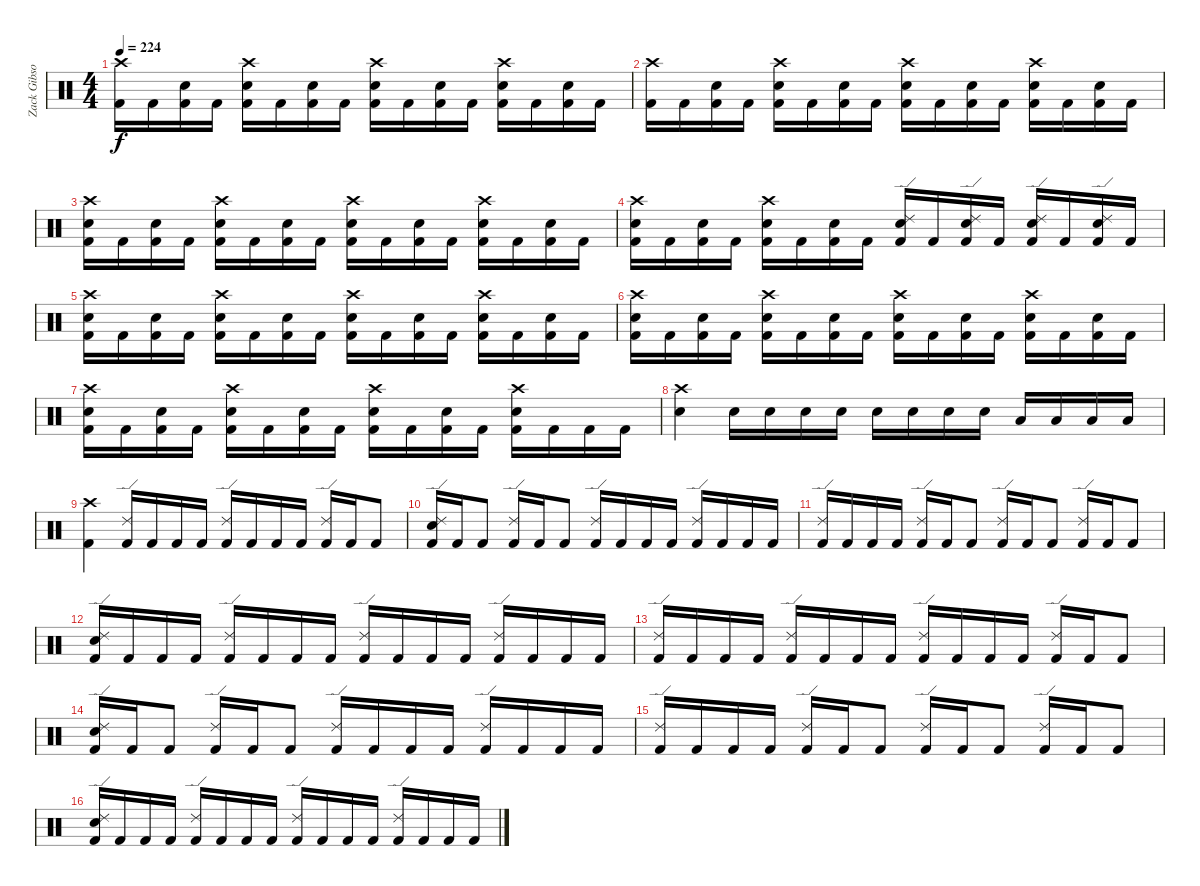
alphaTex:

\track ("Zack Gibson" "Zack Gibso") {instrument percussion}
\staff {score}
\articulation defaults
\ts (4 4)
\tempo 224
\clef neutral
\ks c
("Crash high (hit)" "Kick (hit) 2").16{dy f} "Kick (hit) 2".16 ("Snare (hit) 2" "Kick (hit) 2").16 "Kick (hit) 2".16 ("Kick (hit) 2" "Crash high (hit)" "Snare (hit) 2").16 "Kick (hit) 2".16 ("Snare (hit) 2" "Kick (hit) 2").16 "Kick (hit) 2".16 ("Kick (hit) 2" "Crash high (hit)" "Snare (hit) 2").16 "Kick (hit) 2".16 ("Snare (hit) 2" "Kick (hit) 2").16 "Kick (hit) 2".16 ("Kick (hit) 2" "Crash high (hit)" "Snare (hit) 2").16 "Kick (hit) 2".16 ("Snare (hit) 2" "Kick (hit) 2").16 "Kick (hit) 2".16 |
("Crash high (hit)" "Kick (hit) 2").16 "Kick (hit) 2".16 ("Snare (hit) 2" "Kick (hit) 2").16 "Kick (hit) 2".16 ("Kick (hit) 2" "Crash high (hit)" "Snare (hit) 2").16 "Kick (hit) 2".16 ("Snare (hit) 2" "Kick (hit) 2").16 "Kick (hit) 2".16 ("Kick (hit) 2" "Crash high (hit)" "Snare (hit) 2").16 "Kick (hit) 2".16 ("Snare (hit) 2" "Kick (hit) 2").16 "Kick (hit) 2".16 ("Kick (hit) 2" "Crash high (hit)" "Snare (hit) 2").16 "Kick (hit) 2".16 ("Snare (hit) 2" "Kick (hit) 2").16 "Kick (hit) 2".16 |
("Crash high (hit)" "Snare (hit) 2" "Kick (hit) 2").16 "Kick (hit) 2".16 ("Snare (hit) 2" "Kick (hit) 2").16 "Kick (hit) 2".16 ("Kick (hit) 2" "Crash high (hit)" "Snare (hit) 2").16 "Kick (hit) 2".16 ("Snare (hit) 2" "Kick (hit) 2").16 "Kick (hit) 2".16 ("Kick (hit) 2" "Crash high (hit)" "Snare (hit) 2").16 "Kick (hit) 2".16 ("Snare (hit) 2" "Kick (hit) 2").16 "Kick (hit) 2".16 ("Kick (hit) 2" "Crash high (hit)" "Snare (hit) 2").16 "Kick (hit) 2".16 ("Snare (hit) 2" "Kick (hit) 2").16 "Kick (hit) 2".16 |
("Crash high (hit)" "Snare (hit) 2" "Kick (hit) 2").16 "Kick (hit) 2".16 ("Snare (hit) 2" "Kick (hit) 2").16 "Kick (hit) 2".16 ("Kick (hit) 2" "Crash high (hit)" "Snare (hit) 2").16 "Kick (hit) 2".16 ("Snare (hit) 2" "Kick (hit) 2").16 "Kick (hit) 2".16 ("Kick (hit) 2" "Ride (edge) 2" "Snare (hit) 2").16 "Kick (hit) 2".16 ("Snare (hit) 2" "Ride (edge) 2" "Kick (hit) 2").16 "Kick (hit) 2".16 ("Kick (hit) 2" "Ride (edge) 2" "Snare (hit) 2").16 "Kick (hit) 2".16 ("Snare (hit) 2" "Ride (edge) 2" "Kick (hit) 2").16 "Kick (hit) 2".16 |
("Crash high (hit)" "Snare (hit) 2" "Kick (hit) 2").16 "Kick (hit) 2".16 ("Snare (hit) 2" "Kick (hit) 2").16 "Kick (hit) 2".16 ("Kick (hit) 2" "Crash high (hit)" "Snare (hit) 2").16 "Kick (hit) 2".16 ("Snare (hit) 2" "Kick (hit) 2").16 "Kick (hit) 2".16 ("Kick (hit) 2" "Crash high (hit)" "Snare (hit) 2").16 "Kick (hit) 2".16 ("Snare (hit) 2" "Kick (hit) 2").16 "Kick (hit) 2".16 ("Kick (hit) 2" "Crash high (hit)" "Snare (hit) 2").16 "Kick (hit) 2".16 ("Snare (hit) 2" "Kick (hit) 2").16 "Kick (hit) 2".16 |
("Crash high (hit)" "Snare (hit) 2" "Kick (hit) 2").16 "Kick (hit) 2".16 ("Snare (hit) 2" "Kick (hit) 2").16 "Kick (hit) 2".16 ("Kick (hit) 2" "Crash high (hit)" "Snare (hit) 2").16 "Kick (hit) 2".16 ("Snare (hit) 2" "Kick (hit) 2").16 "Kick (hit) 2".16 ("Kick (hit) 2" "Crash high (hit)" "Snare (hit) 2").16 "Kick (hit) 2".16 ("Snare (hit) 2" "Kick (hit) 2").16 "Kick (hit) 2".16 ("Kick (hit) 2" "Crash high (hit)" "Snare (hit) 2").16 "Kick (hit) 2".16 ("Snare (hit) 2" "Kick (hit) 2").16 "Kick (hit) 2".16 |
("Crash high (hit)" "Snare (hit) 2" "Kick (hit) 2").16 "Kick (hit) 2".16 ("Snare (hit) 2" "Kick (hit) 2").16 "Kick (hit) 2".16 ("Kick (hit) 2" "Crash high (hit)" "Snare (hit) 2").16 "Kick (hit) 2".16 ("Snare (hit) 2" "Kick (hit) 2").16 "Kick (hit) 2".16 ("Kick (hit) 2" "Crash high (hit)" "Snare (hit) 2").16 "Kick (hit) 2".16 ("Snare (hit) 2" "Kick (hit) 2").16 "Kick (hit) 2".16 ("Kick (hit) 2" "Crash high (hit)" "Snare (hit) 2").16 "Kick (hit) 2".16 "Kick (hit) 2".16 "Kick (hit) 2".16 |
("Crash high (hit)" "Snare (hit) 2").4 "Snare (hit) 2".16 "Snare (hit) 2".16 "Snare (hit) 2".16 "Snare (hit) 2".16 "Snare (hit) 2".16 "Snare (hit) 2".16 "Snare (hit) 2".16 "Snare (hit) 2".16 "Low Tom (hit)".16 "Low Tom (hit)".16 "Low Tom (hit)".16 "Low Tom (hit)".16 |
("Crash high (hit)" "Kick (hit) 2").4 ("Ride (edge) 2" "Kick (hit) 2").16 "Kick (hit) 2".16 "Kick (hit) 2".16 "Kick (hit) 2".16 ("Ride (edge) 2" "Kick (hit) 2").16 "Kick (hit) 2".16 "Kick (hit) 2".16 "Kick (hit) 2".16 ("Ride (edge) 2" "Kick (hit) 2").16 "Kick (hit) 2".16 "Kick (hit) 2".8 |
("Snare (hit) 2" "Ride (edge) 2" "Kick (hit) 2").16 "Kick (hit) 2".16 "Kick (hit) 2".8 ("Ride (edge) 2" "Kick (hit) 2").16 "Kick (hit) 2".16 "Kick (hit) 2".8 ("Ride (edge) 2" "Kick (hit) 2").16 "Kick (hit) 2".16 "Kick (hit) 2".16 "Kick (hit) 2".16 ("Ride (edge) 2" "Kick (hit) 2").16 "Kick (hit) 2".16 "Kick (hit) 2".16 "Kick (hit) 2".16 |
("Ride (edge) 2" "Kick (hit) 2").16 "Kick (hit) 2".16 "Kick (hit) 2".16 "Kick (hit) 2".16 ("Ride (edge) 2" "Kick (hit) 2").16 "Kick (hit) 2".16 "Kick (hit) 2".8 ("Ride (edge) 2" "Kick (hit) 2").16 "Kick (hit) 2".16 "Kick (hit) 2".8 ("Ride (edge) 2" "Kick (hit) 2").16 "Kick (hit) 2".16 "Kick (hit) 2".8 |
("Ride (edge) 2" "Kick (hit) 2" "Snare (hit) 2").16 "Kick (hit) 2".16 "Kick (hit) 2".16 "Kick (hit) 2".16 ("Ride (edge) 2" "Kick (hit) 2").16 "Kick (hit) 2".16 "Kick (hit) 2".16 "Kick (hit) 2".16 ("Ride (edge) 2" "Kick (hit) 2").16 "Kick (hit) 2".16 "Kick (hit) 2".16 "Kick (hit) 2".16 ("Ride (edge) 2" "Kick (hit) 2").16 "Kick (hit) 2".16 "Kick (hit) 2".16 "Kick (hit) 2".16 |
("Ride (edge) 2" "Kick (hit) 2").16 "Kick (hit) 2".16 "Kick (hit) 2".16 "Kick (hit) 2".16 ("Ride (edge) 2" "Kick (hit) 2").16 "Kick (hit) 2".16 "Kick (hit) 2".16 "Kick (hit) 2".16 ("Ride (edge) 2" "Kick (hit) 2").16 "Kick (hit) 2".16 "Kick (hit) 2".16 "Kick (hit) 2".16 ("Ride (edge) 2" "Kick (hit) 2").16 "Kick (hit) 2".16 "Kick (hit) 2".8 |
("Snare (hit) 2" "Ride (edge) 2" "Kick (hit) 2").16 "Kick (hit) 2".16 "Kick (hit) 2".8 ("Ride (edge) 2" "Kick (hit) 2").16 "Kick (hit) 2".16 "Kick (hit) 2".8 ("Ride (edge) 2" "Kick (hit) 2").16 "Kick (hit) 2".16 "Kick (hit) 2".16 "Kick (hit) 2".16 ("Ride (edge) 2" "Kick (hit) 2").16 "Kick (hit) 2".16 "Kick (hit) 2".16 "Kick (hit) 2".16 |
("Ride (edge) 2" "Kick (hit) 2").16 "Kick (hit) 2".16 "Kick (hit) 2".16 "Kick (hit) 2".16 ("Ride (edge) 2" "Kick (hit) 2").16 "Kick (hit) 2".16 "Kick (hit) 2".8 ("Ride (edge) 2" "Kick (hit) 2").16 "Kick (hit) 2".16 "Kick (hit) 2".8 ("Ride (edge) 2" "Kick (hit) 2").16 "Kick (hit) 2".16 "Kick (hit) 2".8 |
("Ride (edge) 2" "Kick (hit) 2" "Snare (hit) 2").16 "Kick (hit) 2".16 "Kick (hit) 2".16 "Kick (hit) 2".16 ("Ride (edge) 2" "Kick (hit) 2").16 "Kick (hit) 2".16 "Kick (hit) 2".16 "Kick (hit) 2".16 ("Ride (edge) 2" "Kick (hit) 2").16 "Kick (hit) 2".16 "Kick (hit) 2".16 "Kick (hit) 2".16 ("Ride (edge) 2" "Kick (hit) 2").16 "Kick (hit) 2".16 "Kick (hit) 2".16 "Kick (hit) 2".16
